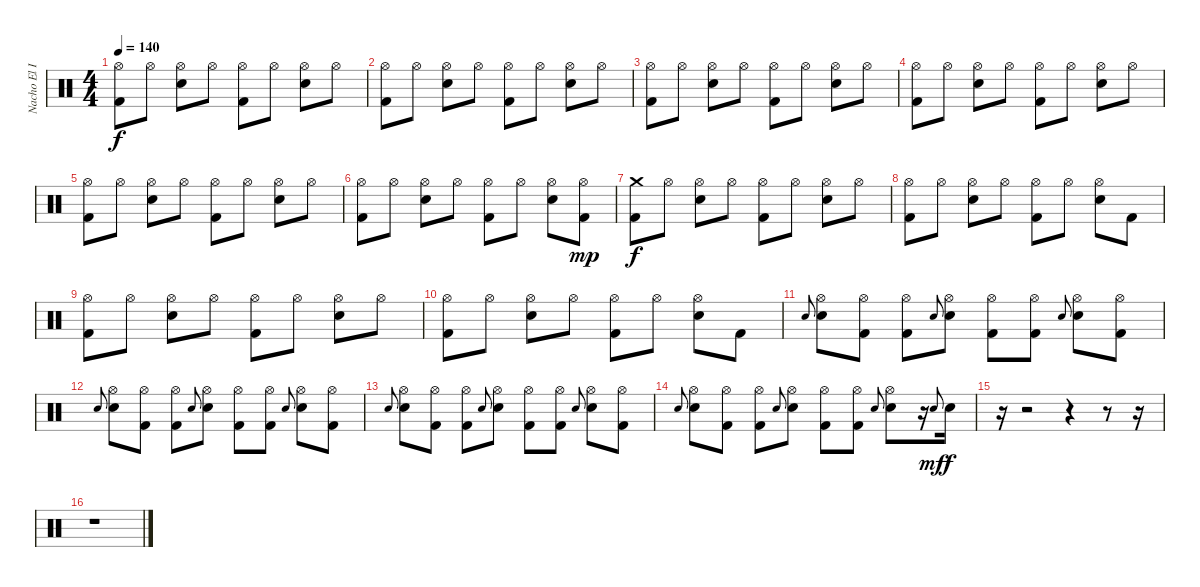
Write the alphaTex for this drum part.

\track ("Nacho El Implacable Gonzalez" "Nacho El I") {instrument percussion}
\staff {score}
\articulation defaults
\ts (4 4)
\tempo 140
\clef neutral
\ks c
("Hi-Hat (open)" "Kick (hit) 2").8{dy f} "Hi-Hat (open)".8 ("Hi-Hat (open)" "Electric Snare (hit)").8 "Hi-Hat (open)".8 ("Hi-Hat (open)" "Kick (hit) 2").8 "Hi-Hat (open)".8 ("Hi-Hat (open)" "Electric Snare (hit)").8 "Hi-Hat (open)".8 |
("Hi-Hat (open)" "Kick (hit) 2").8 "Hi-Hat (open)".8 ("Hi-Hat (open)" "Electric Snare (hit)").8 "Hi-Hat (open)".8 ("Hi-Hat (open)" "Kick (hit) 2").8 "Hi-Hat (open)".8 ("Hi-Hat (open)" "Electric Snare (hit)").8 "Hi-Hat (open)".8 |
("Hi-Hat (open)" "Kick (hit) 2").8 "Hi-Hat (open)".8 ("Hi-Hat (open)" "Electric Snare (hit)").8 "Hi-Hat (open)".8 ("Hi-Hat (open)" "Kick (hit) 2").8 "Hi-Hat (open)".8 ("Hi-Hat (open)" "Electric Snare (hit)").8 "Hi-Hat (open)".8 |
("Hi-Hat (open)" "Kick (hit) 2").8 "Hi-Hat (open)".8 ("Hi-Hat (open)" "Electric Snare (hit)").8 "Hi-Hat (open)".8 ("Hi-Hat (open)" "Kick (hit) 2").8 "Hi-Hat (open)".8 ("Hi-Hat (open)" "Electric Snare (hit)").8 "Hi-Hat (open)".8 |
("Hi-Hat (open)" "Kick (hit) 2").8 "Hi-Hat (open)".8 ("Hi-Hat (open)" "Electric Snare (hit)").8 "Hi-Hat (open)".8 ("Hi-Hat (open)" "Kick (hit) 2").8 "Hi-Hat (open)".8 ("Hi-Hat (open)" "Electric Snare (hit)").8 "Hi-Hat (open)".8 |
("Hi-Hat (open)" "Kick (hit) 2").8 "Hi-Hat (open)".8 ("Hi-Hat (open)" "Electric Snare (hit)").8 "Hi-Hat (open)".8 ("Hi-Hat (open)" "Kick (hit) 2").8 "Hi-Hat (open)".8 ("Hi-Hat (open)" "Electric Snare (hit)").8 ("Hi-Hat (open)" "Kick (hit) 2").8{dy mp} |
("Crash medium (hit)" "Kick (hit) 2").8{dy f} "Hi-Hat (open)".8 ("Hi-Hat (open)" "Electric Snare (hit)").8 "Hi-Hat (open)".8 ("Hi-Hat (open)" "Kick (hit) 2").8 "Hi-Hat (open)".8 ("Hi-Hat (open)" "Electric Snare (hit)").8 "Hi-Hat (open)".8 |
("Hi-Hat (open)" "Kick (hit) 2").8 "Hi-Hat (open)".8 ("Hi-Hat (open)" "Electric Snare (hit)").8 "Hi-Hat (open)".8 ("Hi-Hat (open)" "Kick (hit) 2").8 "Hi-Hat (open)".8 ("Hi-Hat (open)" "Electric Snare (hit)").8 "Kick (hit) 2".8 |
("Hi-Hat (open)" "Kick (hit) 2").8 "Hi-Hat (open)".8 ("Hi-Hat (open)" "Electric Snare (hit)").8 "Hi-Hat (open)".8 ("Hi-Hat (open)" "Kick (hit) 2").8 "Hi-Hat (open)".8 ("Hi-Hat (open)" "Electric Snare (hit)").8 "Hi-Hat (open)".8 |
("Hi-Hat (open)" "Kick (hit) 2").8 "Hi-Hat (open)".8 ("Hi-Hat (open)" "Electric Snare (hit)").8 "Hi-Hat (open)".8 ("Hi-Hat (open)" "Kick (hit) 2").8 "Hi-Hat (open)".8 ("Hi-Hat (open)" "Electric Snare (hit)").8 "Kick (hit) 2".8 |
"Electric Snare (hit)".8{gr onbeat} ("Hi-Hat (open)" "Electric Snare (hit)").8 ("Hi-Hat (open)" "Kick (hit) 2").8 ("Hi-Hat (open)" "Kick (hit) 2").8 "Electric Snare (hit)".8{gr onbeat} ("Hi-Hat (open)" "Electric Snare (hit)").8 ("Hi-Hat (open)" "Kick (hit) 2").8 ("Hi-Hat (open)" "Kick (hit) 2").8 "Electric Snare (hit)".8{gr onbeat} ("Hi-Hat (open)" "Electric Snare (hit)").8 ("Hi-Hat (open)" "Kick (hit) 2").8 |
"Electric Snare (hit)".8{gr onbeat} ("Hi-Hat (open)" "Electric Snare (hit)").8 ("Hi-Hat (open)" "Kick (hit) 2").8 ("Hi-Hat (open)" "Kick (hit) 2").8 "Electric Snare (hit)".8{gr onbeat} ("Hi-Hat (open)" "Electric Snare (hit)").8 ("Hi-Hat (open)" "Kick (hit) 2").8 ("Hi-Hat (open)" "Kick (hit) 2").8 "Electric Snare (hit)".8{gr onbeat} ("Hi-Hat (open)" "Electric Snare (hit)").8 ("Hi-Hat (open)" "Kick (hit) 2").8 |
"Electric Snare (hit)".8{gr onbeat} ("Hi-Hat (open)" "Electric Snare (hit)").8 ("Hi-Hat (open)" "Kick (hit) 2").8 ("Hi-Hat (open)" "Kick (hit) 2").8 "Electric Snare (hit)".8{gr onbeat} ("Hi-Hat (open)" "Electric Snare (hit)").8 ("Hi-Hat (open)" "Kick (hit) 2").8 ("Hi-Hat (open)" "Kick (hit) 2").8 "Electric Snare (hit)".8{gr onbeat} ("Hi-Hat (open)" "Electric Snare (hit)").8 ("Hi-Hat (open)" "Kick (hit) 2").8 |
"Electric Snare (hit)".8{gr onbeat} ("Hi-Hat (open)" "Electric Snare (hit)").8 ("Hi-Hat (open)" "Kick (hit) 2").8 ("Hi-Hat (open)" "Kick (hit) 2").8 "Electric Snare (hit)".8{gr onbeat} ("Hi-Hat (open)" "Electric Snare (hit)").8 ("Hi-Hat (open)" "Kick (hit) 2").8 ("Hi-Hat (open)" "Kick (hit) 2").8 "Electric Snare (hit)".8{gr onbeat} ("Hi-Hat (open)" "Electric Snare (hit)").8 r.16 "Electric Snare (hit)".8{gr onbeat dy mf} "Electric Snare (hit)".16{dy f} |
r.16 r.2 r.4 r.8 r.16 |
r.1
